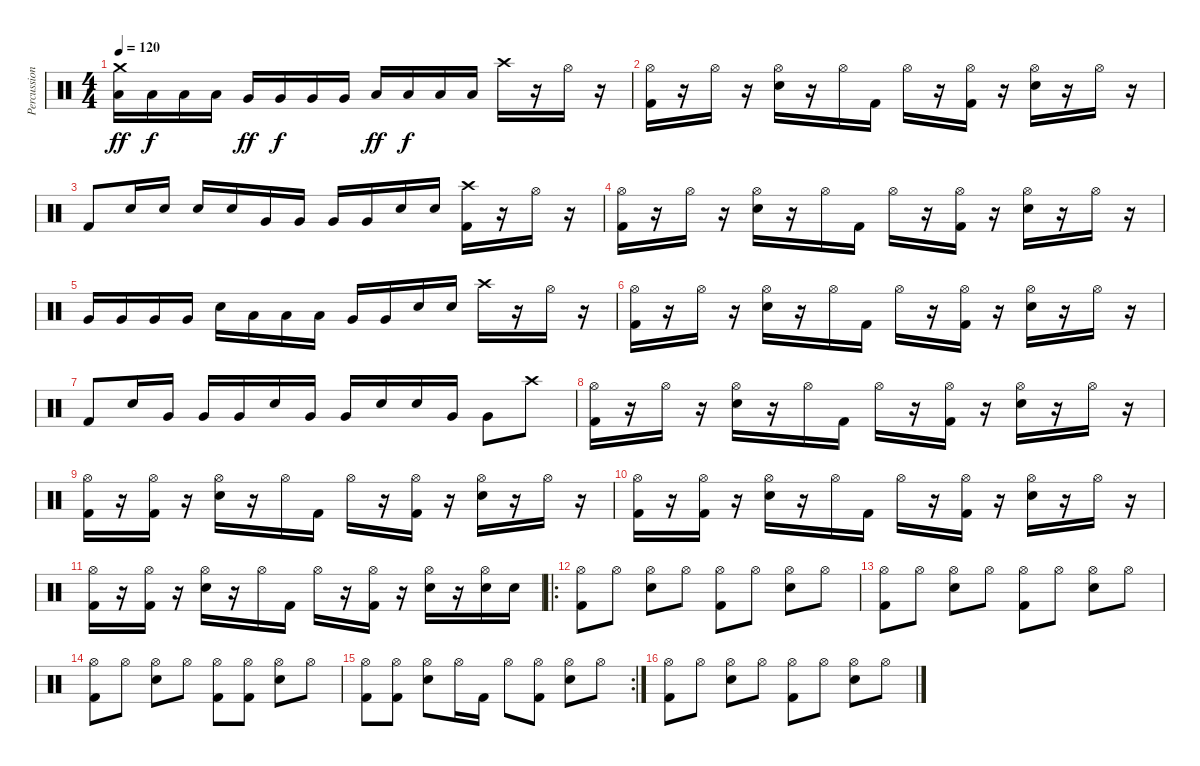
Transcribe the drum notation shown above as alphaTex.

\track ("Percussion" "Percussion") {instrument percussion}
\staff {score}
\articulation defaults
\ts (4 4)
\tempo 120
\clef neutral
\ks c
("Crash medium (hit)" "Low Tom (hit)").16{dy ff} "Low Tom (hit)".16{dy f} "Low Tom (hit)".16 "Low Tom (hit)".16 "Very Low Tom (hit)".16{dy ff} "Very Low Tom (hit)".16{dy f} "Very Low Tom (hit)".16 "Very Low Tom (hit)".16 "Low Floor Tom (hit)".16{dy ff} "Low Floor Tom (hit)".16{dy f} "Low Floor Tom (hit)".16 "Low Floor Tom (hit)".16 "Crash high (hit)".16 r.16 "Hi-Hat (open)".16 r.16 |
("Kick (hit) 2" "Hi-Hat (open)").16 r.16 "Hi-Hat (open)".16 r.16 ("Snare (hit) 2" "Hi-Hat (open)").16 r.16 "Hi-Hat (open)".16 "Kick (hit) 2".16 "Hi-Hat (open)".16 r.16 ("Kick (hit) 2" "Hi-Hat (open)").16 r.16 ("Snare (hit) 2" "Hi-Hat (open)").16 r.16 "Hi-Hat (open)".16 r.16 |
"Kick (hit) 2".8 "Snare (hit) 2".16 "Snare (hit) 2".16 "Snare (hit) 2".16 "Snare (hit) 2".16 "Very Low Tom (hit)".16 "Very Low Tom (hit)".16 "Very Low Tom (hit)".16 "Very Low Tom (hit)".16 "Snare (hit) 2".16 "Snare (hit) 2".16 ("Kick (hit) 2" "Crash high (hit)").16 r.16 "Hi-Hat (open)".16 r.16 |
("Kick (hit) 2" "Hi-Hat (open)").16 r.16 "Hi-Hat (open)".16 r.16 ("Snare (hit) 2" "Hi-Hat (open)").16 r.16 "Hi-Hat (open)".16 "Kick (hit) 2".16 "Hi-Hat (open)".16 r.16 ("Kick (hit) 2" "Hi-Hat (open)").16 r.16 ("Snare (hit) 2" "Hi-Hat (open)").16 r.16 "Hi-Hat (open)".16 r.16 |
"Very Low Tom (hit)".16 "Very Low Tom (hit)".16 "Very Low Tom (hit)".16 "Very Low Tom (hit)".16 "Snare (hit) 2".16 "Low Floor Tom (hit)".16 "Low Floor Tom (hit)".16 "Low Floor Tom (hit)".16 "Very Low Tom (hit)".16 "Very Low Tom (hit)".16 "Snare (hit) 2".16 "Snare (hit) 2".16 "Crash high (hit)".16 r.16 "Hi-Hat (open)".16 r.16 |
("Kick (hit) 2" "Hi-Hat (open)").16 r.16 "Hi-Hat (open)".16 r.16 ("Snare (hit) 2" "Hi-Hat (open)").16 r.16 "Hi-Hat (open)".16 "Kick (hit) 2".16 "Hi-Hat (open)".16 r.16 ("Kick (hit) 2" "Hi-Hat (open)").16 r.16 ("Snare (hit) 2" "Hi-Hat (open)").16 r.16 "Hi-Hat (open)".16 r.16 |
"Kick (hit) 2".8 "Snare (hit) 2".16 "Very Low Tom (hit)".16 "Very Low Tom (hit)".16 "Very Low Tom (hit)".16 "Snare (hit) 2".16 "Very Low Tom (hit)".16 "Very Low Tom (hit)".16 "Snare (hit) 2".16 "Snare (hit) 2".16 "Very Low Tom (hit)".16 "Very Low Tom (hit)".8 "Crash high (hit)".8 |
("Kick (hit) 2" "Hi-Hat (open)").16 r.16 "Hi-Hat (open)".16 r.16 ("Snare (hit) 2" "Hi-Hat (open)").16 r.16 "Hi-Hat (open)".16 "Kick (hit) 2".16 "Hi-Hat (open)".16 r.16 ("Kick (hit) 2" "Hi-Hat (open)").16 r.16 ("Snare (hit) 2" "Hi-Hat (open)").16 r.16 "Hi-Hat (open)".16 r.16 |
("Kick (hit) 2" "Hi-Hat (open)").16 r.16 ("Kick (hit) 2" "Hi-Hat (open)").16 r.16 ("Snare (hit) 2" "Hi-Hat (open)").16 r.16 "Hi-Hat (open)".16 "Kick (hit) 2".16 "Hi-Hat (open)".16 r.16 ("Kick (hit) 2" "Hi-Hat (open)").16 r.16 ("Snare (hit) 2" "Hi-Hat (open)").16 r.16 "Hi-Hat (open)".16 r.16 |
("Kick (hit) 2" "Hi-Hat (open)").16 r.16 ("Kick (hit) 2" "Hi-Hat (open)").16 r.16 ("Snare (hit) 2" "Hi-Hat (open)").16 r.16 "Hi-Hat (open)".16 "Kick (hit) 2".16 "Hi-Hat (open)".16 r.16 ("Kick (hit) 2" "Hi-Hat (open)").16 r.16 ("Snare (hit) 2" "Hi-Hat (open)").16 r.16 "Hi-Hat (open)".16 r.16 |
("Kick (hit) 2" "Hi-Hat (open)").16 r.16 ("Kick (hit) 2" "Hi-Hat (open)").16 r.16 ("Snare (hit) 2" "Hi-Hat (open)").16 r.16 "Hi-Hat (open)".16 "Kick (hit) 2".16 "Hi-Hat (open)".16 r.16 ("Kick (hit) 2" "Hi-Hat (open)").16 r.16 ("Snare (hit) 2" "Hi-Hat (open)").16 r.16 ("Snare (hit) 2" "Hi-Hat (open)").16 "Snare (hit) 2".16 |
\ro
("Kick (hit) 2" "Hi-Hat (open)").8 "Hi-Hat (open)".8 ("Snare (hit) 2" "Hi-Hat (open)").8 "Hi-Hat (open)".8 ("Kick (hit) 2" "Hi-Hat (open)").8 "Hi-Hat (open)".8 ("Snare (hit) 2" "Hi-Hat (open)").8 "Hi-Hat (open)".8 |
("Kick (hit) 2" "Hi-Hat (open)").8 "Hi-Hat (open)".8 ("Snare (hit) 2" "Hi-Hat (open)").8 "Hi-Hat (open)".8 ("Kick (hit) 2" "Hi-Hat (open)").8 "Hi-Hat (open)".8 ("Snare (hit) 2" "Hi-Hat (open)").8 "Hi-Hat (open)".8 |
("Kick (hit) 2" "Hi-Hat (open)").8 "Hi-Hat (open)".8 ("Snare (hit) 2" "Hi-Hat (open)").8 "Hi-Hat (open)".8 ("Kick (hit) 2" "Hi-Hat (open)").8 ("Kick (hit) 2" "Hi-Hat (open)").8 ("Snare (hit) 2" "Hi-Hat (open)").8 "Hi-Hat (open)".8 |
\rc 2
("Kick (hit) 2" "Hi-Hat (open)").8 ("Kick (hit) 2" "Hi-Hat (open)").8 ("Snare (hit) 2" "Hi-Hat (open)").8 "Hi-Hat (open)".16 "Kick (hit) 2".16 "Hi-Hat (open)".8 ("Kick (hit) 2" "Hi-Hat (open)").8 ("Snare (hit) 2" "Hi-Hat (open)").8 "Hi-Hat (open)".8 |
("Kick (hit) 2" "Hi-Hat (open)").8 "Hi-Hat (open)".8 ("Snare (hit) 2" "Hi-Hat (open)").8 "Hi-Hat (open)".8 ("Kick (hit) 2" "Hi-Hat (open)").8 "Hi-Hat (open)".8 ("Snare (hit) 2" "Hi-Hat (open)").8 "Hi-Hat (open)".8
